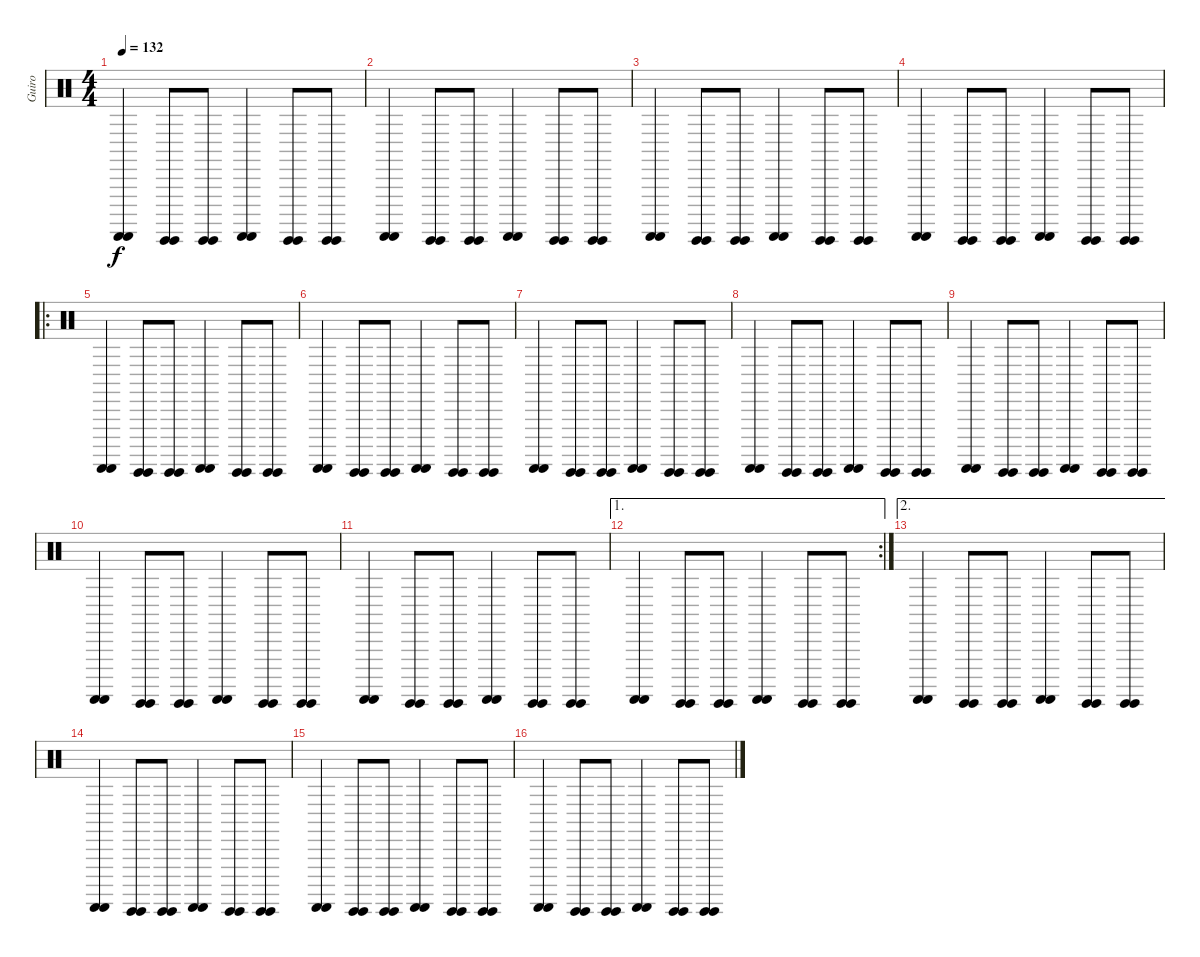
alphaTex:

\track ("Guiro" "Guiro") {instrument percussion}
\staff {score}
\articulation defaults
\ts (4 4)
\tempo 132
\clef neutral
\ks c
("Guiro (scrap-return)" "Guiro (scrap-return)").4{dy f} ("Guiro (hit)" "Guiro (hit)").8 ("Guiro (hit)" "Guiro (hit)").8 ("Guiro (scrap-return)" "Guiro (scrap-return)").4 ("Guiro (hit)" "Guiro (hit)").8 ("Guiro (hit)" "Guiro (hit)").8 |
("Guiro (scrap-return)" "Guiro (scrap-return)").4 ("Guiro (hit)" "Guiro (hit)").8 ("Guiro (hit)" "Guiro (hit)").8 ("Guiro (scrap-return)" "Guiro (scrap-return)").4 ("Guiro (hit)" "Guiro (hit)").8 ("Guiro (hit)" "Guiro (hit)").8 |
("Guiro (scrap-return)" "Guiro (scrap-return)").4 ("Guiro (hit)" "Guiro (hit)").8 ("Guiro (hit)" "Guiro (hit)").8 ("Guiro (scrap-return)" "Guiro (scrap-return)").4 ("Guiro (hit)" "Guiro (hit)").8 ("Guiro (hit)" "Guiro (hit)").8 |
("Guiro (scrap-return)" "Guiro (scrap-return)").4 ("Guiro (hit)" "Guiro (hit)").8 ("Guiro (hit)" "Guiro (hit)").8 ("Guiro (scrap-return)" "Guiro (scrap-return)").4 ("Guiro (hit)" "Guiro (hit)").8 ("Guiro (hit)" "Guiro (hit)").8 |
\ro
("Guiro (scrap-return)" "Guiro (scrap-return)").4 ("Guiro (hit)" "Guiro (hit)").8 ("Guiro (hit)" "Guiro (hit)").8 ("Guiro (scrap-return)" "Guiro (scrap-return)").4 ("Guiro (hit)" "Guiro (hit)").8 ("Guiro (hit)" "Guiro (hit)").8 |
("Guiro (scrap-return)" "Guiro (scrap-return)").4 ("Guiro (hit)" "Guiro (hit)").8 ("Guiro (hit)" "Guiro (hit)").8 ("Guiro (scrap-return)" "Guiro (scrap-return)").4 ("Guiro (hit)" "Guiro (hit)").8 ("Guiro (hit)" "Guiro (hit)").8 |
("Guiro (scrap-return)" "Guiro (scrap-return)").4 ("Guiro (hit)" "Guiro (hit)").8 ("Guiro (hit)" "Guiro (hit)").8 ("Guiro (scrap-return)" "Guiro (scrap-return)").4 ("Guiro (hit)" "Guiro (hit)").8 ("Guiro (hit)" "Guiro (hit)").8 |
("Guiro (scrap-return)" "Guiro (scrap-return)").4 ("Guiro (hit)" "Guiro (hit)").8 ("Guiro (hit)" "Guiro (hit)").8 ("Guiro (scrap-return)" "Guiro (scrap-return)").4 ("Guiro (hit)" "Guiro (hit)").8 ("Guiro (hit)" "Guiro (hit)").8 |
("Guiro (scrap-return)" "Guiro (scrap-return)").4 ("Guiro (hit)" "Guiro (hit)").8 ("Guiro (hit)" "Guiro (hit)").8 ("Guiro (scrap-return)" "Guiro (scrap-return)").4 ("Guiro (hit)" "Guiro (hit)").8 ("Guiro (hit)" "Guiro (hit)").8 |
("Guiro (scrap-return)" "Guiro (scrap-return)").4 ("Guiro (hit)" "Guiro (hit)").8 ("Guiro (hit)" "Guiro (hit)").8 ("Guiro (scrap-return)" "Guiro (scrap-return)").4 ("Guiro (hit)" "Guiro (hit)").8 ("Guiro (hit)" "Guiro (hit)").8 |
("Guiro (scrap-return)" "Guiro (scrap-return)").4 ("Guiro (hit)" "Guiro (hit)").8 ("Guiro (hit)" "Guiro (hit)").8 ("Guiro (scrap-return)" "Guiro (scrap-return)").4 ("Guiro (hit)" "Guiro (hit)").8 ("Guiro (hit)" "Guiro (hit)").8 |
\ae 1
\rc 2
("Guiro (scrap-return)" "Guiro (scrap-return)").4 ("Guiro (hit)" "Guiro (hit)").8 ("Guiro (hit)" "Guiro (hit)").8 ("Guiro (scrap-return)" "Guiro (scrap-return)").4 ("Guiro (hit)" "Guiro (hit)").8 ("Guiro (hit)" "Guiro (hit)").8 |
\ae 2
("Guiro (scrap-return)" "Guiro (scrap-return)").4 ("Guiro (hit)" "Guiro (hit)").8 ("Guiro (hit)" "Guiro (hit)").8 ("Guiro (scrap-return)" "Guiro (scrap-return)").4 ("Guiro (hit)" "Guiro (hit)").8 ("Guiro (hit)" "Guiro (hit)").8 |
("Guiro (scrap-return)" "Guiro (scrap-return)").4 ("Guiro (hit)" "Guiro (hit)").8 ("Guiro (hit)" "Guiro (hit)").8 ("Guiro (scrap-return)" "Guiro (scrap-return)").4 ("Guiro (hit)" "Guiro (hit)").8 ("Guiro (hit)" "Guiro (hit)").8 |
("Guiro (scrap-return)" "Guiro (scrap-return)").4 ("Guiro (hit)" "Guiro (hit)").8 ("Guiro (hit)" "Guiro (hit)").8 ("Guiro (scrap-return)" "Guiro (scrap-return)").4 ("Guiro (hit)" "Guiro (hit)").8 ("Guiro (hit)" "Guiro (hit)").8 |
("Guiro (scrap-return)" "Guiro (scrap-return)").4 ("Guiro (hit)" "Guiro (hit)").8 ("Guiro (hit)" "Guiro (hit)").8 ("Guiro (scrap-return)" "Guiro (scrap-return)").4 ("Guiro (hit)" "Guiro (hit)").8 ("Guiro (hit)" "Guiro (hit)").8
